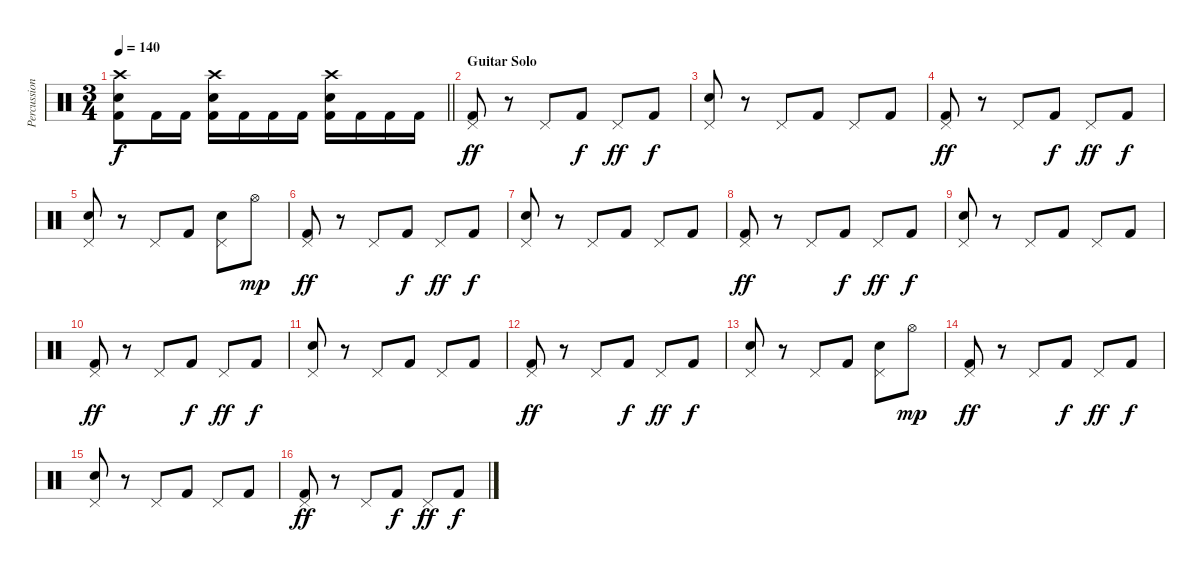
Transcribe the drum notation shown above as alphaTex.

\track ("Percussion" "Percussion") {instrument percussion}
\staff {score}
\articulation defaults
\ts (3 4)
\tempo 140
\clef neutral
\barLineRight lightlight
\ks c
("Crash high (hit)" "Electric Snare (hit)" "Kick (hit) 2").8{dy f} "Kick (hit) 2".16 "Kick (hit) 2".16 ("Crash high (hit)" "Electric Snare (hit)" "Kick (hit) 2").16 "Kick (hit) 2".16 "Kick (hit) 2".16 "Kick (hit) 2".16 ("Crash high (hit)" "Electric Snare (hit)" "Kick (hit) 2").16 "Kick (hit) 2".16 "Kick (hit) 2".16 "Kick (hit) 2".16 |
\section ("" "Guitar Solo")
("Pedal Hi-Hat (hit)" "Kick (hit) 2").8{dy ff} r.8 "Pedal Hi-Hat (hit)".8 "Kick (hit) 2".8{dy f} "Pedal Hi-Hat (hit)".8{dy ff} "Kick (hit) 2".8{dy f} |
("Pedal Hi-Hat (hit)" "Electric Snare (hit)").8 r.8 "Pedal Hi-Hat (hit)".8 "Kick (hit) 2".8 "Pedal Hi-Hat (hit)".8 "Kick (hit) 2".8 |
("Pedal Hi-Hat (hit)" "Kick (hit) 2").8{dy ff} r.8 "Pedal Hi-Hat (hit)".8 "Kick (hit) 2".8{dy f} "Pedal Hi-Hat (hit)".8{dy ff} "Kick (hit) 2".8{dy f} |
("Pedal Hi-Hat (hit)" "Electric Snare (hit)").8 r.8 "Pedal Hi-Hat (hit)".8 "Kick (hit) 2".8 ("Pedal Hi-Hat (hit)" "Electric Snare (hit)").8 "Hi-Hat (open)".8{dy mp} |
("Pedal Hi-Hat (hit)" "Kick (hit) 2").8{dy ff} r.8 "Pedal Hi-Hat (hit)".8 "Kick (hit) 2".8{dy f} "Pedal Hi-Hat (hit)".8{dy ff} "Kick (hit) 2".8{dy f} |
("Pedal Hi-Hat (hit)" "Electric Snare (hit)").8 r.8 "Pedal Hi-Hat (hit)".8 "Kick (hit) 2".8 "Pedal Hi-Hat (hit)".8 "Kick (hit) 2".8 |
("Pedal Hi-Hat (hit)" "Kick (hit) 2").8{dy ff} r.8 "Pedal Hi-Hat (hit)".8 "Kick (hit) 2".8{dy f} "Pedal Hi-Hat (hit)".8{dy ff} "Kick (hit) 2".8{dy f} |
("Pedal Hi-Hat (hit)" "Electric Snare (hit)").8 r.8 "Pedal Hi-Hat (hit)".8 "Kick (hit) 2".8 "Pedal Hi-Hat (hit)".8 "Kick (hit) 2".8 |
("Pedal Hi-Hat (hit)" "Kick (hit) 2").8{dy ff} r.8 "Pedal Hi-Hat (hit)".8 "Kick (hit) 2".8{dy f} "Pedal Hi-Hat (hit)".8{dy ff} "Kick (hit) 2".8{dy f} |
("Pedal Hi-Hat (hit)" "Electric Snare (hit)").8 r.8 "Pedal Hi-Hat (hit)".8 "Kick (hit) 2".8 "Pedal Hi-Hat (hit)".8 "Kick (hit) 2".8 |
("Pedal Hi-Hat (hit)" "Kick (hit) 2").8{dy ff} r.8 "Pedal Hi-Hat (hit)".8 "Kick (hit) 2".8{dy f} "Pedal Hi-Hat (hit)".8{dy ff} "Kick (hit) 2".8{dy f} |
("Pedal Hi-Hat (hit)" "Electric Snare (hit)").8 r.8 "Pedal Hi-Hat (hit)".8 "Kick (hit) 2".8 ("Pedal Hi-Hat (hit)" "Electric Snare (hit)").8 "Hi-Hat (open)".8{dy mp} |
("Pedal Hi-Hat (hit)" "Kick (hit) 2").8{dy ff} r.8 "Pedal Hi-Hat (hit)".8 "Kick (hit) 2".8{dy f} "Pedal Hi-Hat (hit)".8{dy ff} "Kick (hit) 2".8{dy f} |
("Pedal Hi-Hat (hit)" "Electric Snare (hit)").8 r.8 "Pedal Hi-Hat (hit)".8 "Kick (hit) 2".8 "Pedal Hi-Hat (hit)".8 "Kick (hit) 2".8 |
("Pedal Hi-Hat (hit)" "Kick (hit) 2").8{dy ff} r.8 "Pedal Hi-Hat (hit)".8 "Kick (hit) 2".8{dy f} "Pedal Hi-Hat (hit)".8{dy ff} "Kick (hit) 2".8{dy f}
